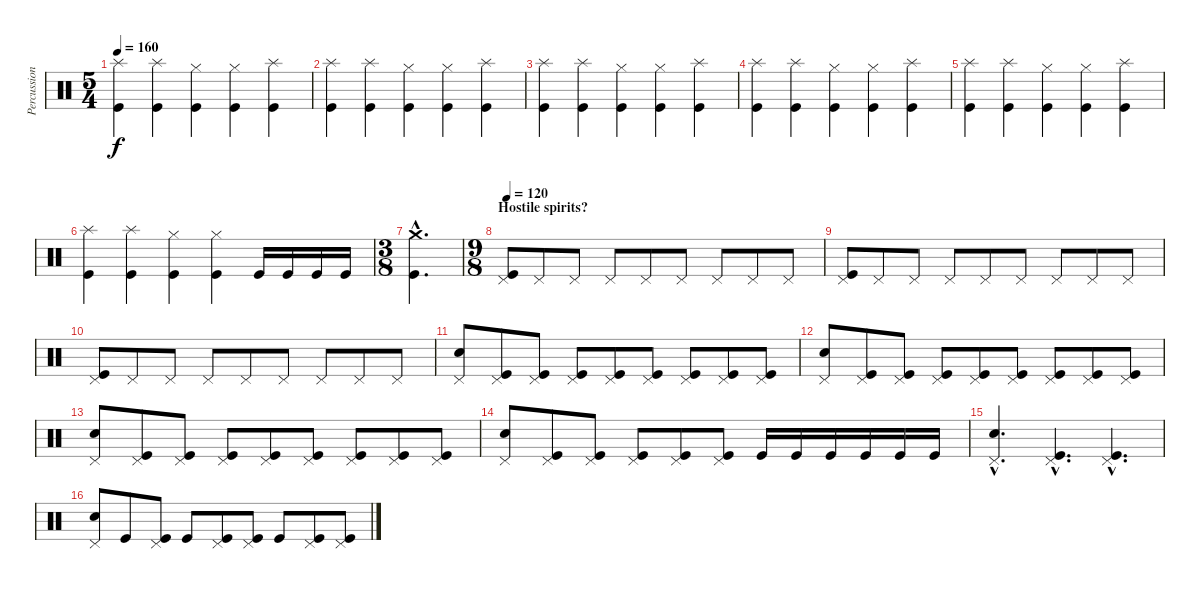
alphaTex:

\track ("Percussion" "Percussion") {instrument percussion}
\staff {score}
\articulation defaults
\ts (5 4)
\tempo 160
\clef neutral
\ks c
("Splash (hit)" "Kick (hit)").4{dy f} ("Splash (hit)" "Kick (hit)").4 ("Hi-Hat (closed)" "Kick (hit)").4 ("Hi-Hat (closed)" "Kick (hit)").4 ("Splash (hit)" "Kick (hit)").4 |
("Splash (hit)" "Kick (hit)").4 ("Splash (hit)" "Kick (hit)").4 ("Hi-Hat (closed)" "Kick (hit)").4 ("Hi-Hat (closed)" "Kick (hit)").4 ("Splash (hit)" "Kick (hit)").4 |
("Splash (hit)" "Kick (hit)").4 ("Splash (hit)" "Kick (hit)").4 ("Hi-Hat (closed)" "Kick (hit)").4 ("Hi-Hat (closed)" "Kick (hit)").4 ("Splash (hit)" "Kick (hit)").4 |
("Splash (hit)" "Kick (hit)").4 ("Splash (hit)" "Kick (hit)").4 ("Hi-Hat (closed)" "Kick (hit)").4 ("Hi-Hat (closed)" "Kick (hit)").4 ("Splash (hit)" "Kick (hit)").4 |
("Splash (hit)" "Kick (hit)").4 ("Splash (hit)" "Kick (hit)").4 ("Hi-Hat (closed)" "Kick (hit)").4 ("Hi-Hat (closed)" "Kick (hit)").4 ("Splash (hit)" "Kick (hit)").4 |
("Splash (hit)" "Kick (hit)").4 ("Splash (hit)" "Kick (hit)").4 ("Hi-Hat (closed)" "Kick (hit)").4 ("Hi-Hat (closed)" "Kick (hit)").4 "Kick (hit)".16 "Kick (hit)".16 "Kick (hit)".16 "Kick (hit)".16 |
\ts (3 8)
("Crash medium (hit)"{hac} "Kick (hit)"{hac}).4{d} |
\ts (9 8)
\section ("" "Hostile spirits? ")
\tempo 120
("Pedal Hi-Hat (hit)" "Kick (hit)").8 "Pedal Hi-Hat (hit)".8 "Pedal Hi-Hat (hit)".8 "Pedal Hi-Hat (hit)".8 "Pedal Hi-Hat (hit)".8 "Pedal Hi-Hat (hit)".8 "Pedal Hi-Hat (hit)".8 "Pedal Hi-Hat (hit)".8 "Pedal Hi-Hat (hit)".8 |
("Pedal Hi-Hat (hit)" "Kick (hit)").8 "Pedal Hi-Hat (hit)".8 "Pedal Hi-Hat (hit)".8 "Pedal Hi-Hat (hit)".8 "Pedal Hi-Hat (hit)".8 "Pedal Hi-Hat (hit)".8 "Pedal Hi-Hat (hit)".8 "Pedal Hi-Hat (hit)".8 "Pedal Hi-Hat (hit)".8 |
("Pedal Hi-Hat (hit)" "Kick (hit)").8 "Pedal Hi-Hat (hit)".8 "Pedal Hi-Hat (hit)".8 "Pedal Hi-Hat (hit)".8 "Pedal Hi-Hat (hit)".8 "Pedal Hi-Hat (hit)".8 "Pedal Hi-Hat (hit)".8 "Pedal Hi-Hat (hit)".8 "Pedal Hi-Hat (hit)".8 |
("Pedal Hi-Hat (hit)" "Snare (hit) 2").8 ("Pedal Hi-Hat (hit)" "Kick (hit)").8 ("Pedal Hi-Hat (hit)" "Kick (hit)").8 ("Pedal Hi-Hat (hit)" "Kick (hit)").8 ("Pedal Hi-Hat (hit)" "Kick (hit)").8 ("Pedal Hi-Hat (hit)" "Kick (hit)").8 ("Pedal Hi-Hat (hit)" "Kick (hit)").8 ("Pedal Hi-Hat (hit)" "Kick (hit)").8 ("Pedal Hi-Hat (hit)" "Kick (hit)").8 |
("Pedal Hi-Hat (hit)" "Snare (hit) 2").8 ("Pedal Hi-Hat (hit)" "Kick (hit)").8 ("Pedal Hi-Hat (hit)" "Kick (hit)").8 ("Pedal Hi-Hat (hit)" "Kick (hit)").8 ("Pedal Hi-Hat (hit)" "Kick (hit)").8 ("Pedal Hi-Hat (hit)" "Kick (hit)").8 ("Pedal Hi-Hat (hit)" "Kick (hit)").8 ("Pedal Hi-Hat (hit)" "Kick (hit)").8 ("Pedal Hi-Hat (hit)" "Kick (hit)").8 |
("Pedal Hi-Hat (hit)" "Snare (hit) 2").8 ("Pedal Hi-Hat (hit)" "Kick (hit)").8 ("Pedal Hi-Hat (hit)" "Kick (hit)").8 ("Pedal Hi-Hat (hit)" "Kick (hit)").8 ("Pedal Hi-Hat (hit)" "Kick (hit)").8 ("Pedal Hi-Hat (hit)" "Kick (hit)").8 ("Pedal Hi-Hat (hit)" "Kick (hit)").8 ("Pedal Hi-Hat (hit)" "Kick (hit)").8 ("Pedal Hi-Hat (hit)" "Kick (hit)").8 |
("Pedal Hi-Hat (hit)" "Snare (hit) 2").8 ("Pedal Hi-Hat (hit)" "Kick (hit)").8 ("Pedal Hi-Hat (hit)" "Kick (hit)").8 ("Pedal Hi-Hat (hit)" "Kick (hit)").8 ("Pedal Hi-Hat (hit)" "Kick (hit)").8 ("Pedal Hi-Hat (hit)" "Kick (hit)").8 "Kick (hit)".16 "Kick (hit)".16 "Kick (hit)".16 "Kick (hit)".16 "Kick (hit)".16 "Kick (hit)".16 |
("Pedal Hi-Hat (hit)"{hac} "Snare (hit) 2"{hac}).4{d} ("Pedal Hi-Hat (hit)"{hac} "Kick (hit)"{hac}).4{d} ("Pedal Hi-Hat (hit)"{hac} "Kick (hit)"{hac}).4{d} |
("Pedal Hi-Hat (hit)" "Snare (hit) 2").8 "Kick (hit)".8 ("Pedal Hi-Hat (hit)" "Kick (hit)").8 "Kick (hit)".8 ("Pedal Hi-Hat (hit)" "Kick (hit)").8 ("Pedal Hi-Hat (hit)" "Kick (hit)").8 "Kick (hit)".8 ("Pedal Hi-Hat (hit)" "Kick (hit)").8 ("Pedal Hi-Hat (hit)" "Kick (hit)").8
